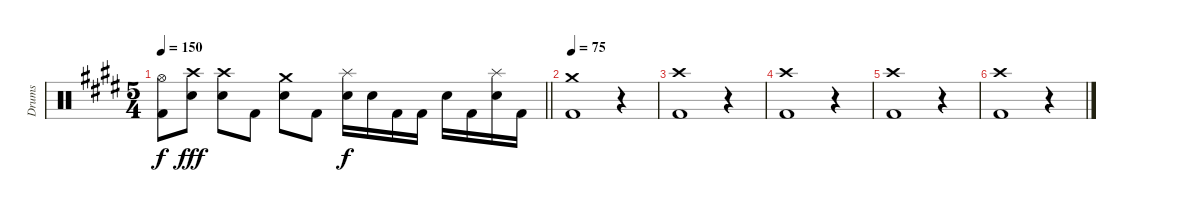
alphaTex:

\track ("Drums" "Drums") {instrument percussion}
\staff {score}
\articulation defaults
\ts (5 4)
\tempo 150
\clef neutral
\barLineRight lightlight
\ks c#minor
("Hi-Hat (open)" "Kick (hit) 2").8{dy f} ("Crash high (hit)" "Electric Snare (hit)").8{dy fff} ("Crash high (hit)" "Electric Snare (hit)").8 "Kick (hit) 2".8 ("Crash medium (hit)" "Electric Snare (hit)").8 "Kick (hit) 2".8 ("Splash (hit)" "Electric Snare (hit)").16{dy f} "Electric Snare (hit)".16 "Kick (hit) 2".16 "Kick (hit) 2".16 "Electric Snare (hit)".16 "Kick (hit) 2".16 ("Splash (hit)" "Electric Snare (hit)").16 "Kick (hit) 2".16 |
\section ("" "")
\tempo 75
("Crash medium (hit)" "Kick (hit) 2").1 r.4 |
("Crash high (hit)" "Kick (hit) 2").1 r.4 |
("Crash high (hit)" "Kick (hit) 2").1 r.4 |
("Crash high (hit)" "Kick (hit) 2").1 r.4 |
("Crash high (hit)" "Kick (hit) 2").1 r.4
